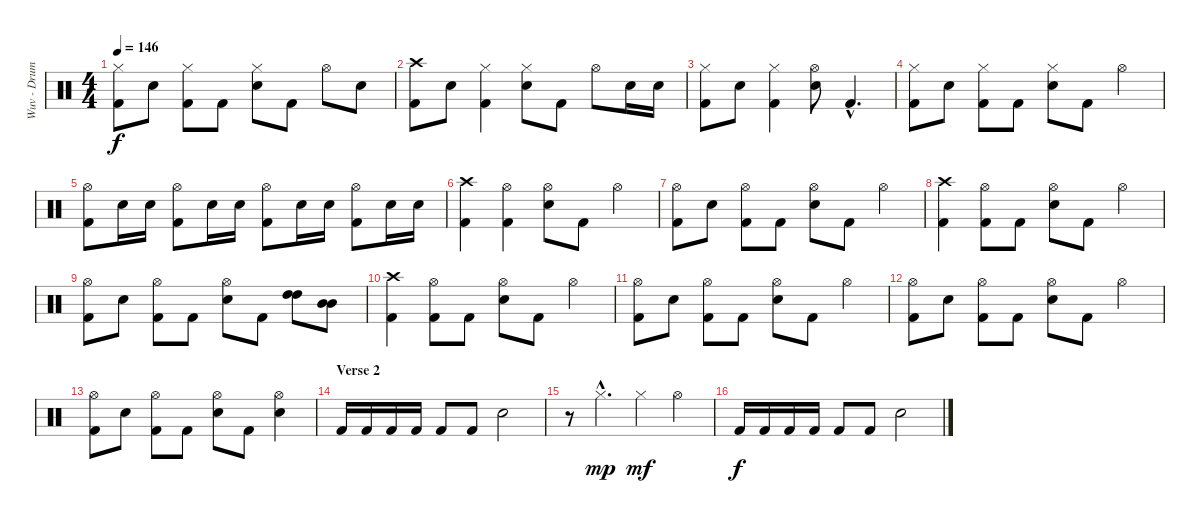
\track ("Wuv - Drums" "Wuv - Drum") {instrument percussion}
\staff {score}
\articulation defaults
\ts (4 4)
\tempo 146
\clef neutral
\ks c
("Hi-Hat (closed)" "Kick (hit) 2").8{dy f} "Electric Snare (hit)".8 ("Hi-Hat (closed)" "Kick (hit) 2").8 "Kick (hit) 2".8 ("Hi-Hat (closed)" "Electric Snare (hit)").8 "Kick (hit) 2".8 "Hi-Hat (open)".8 "Electric Snare (hit)".8 |
("Crash high (hit)" "Kick (hit) 2").8 "Electric Snare (hit)".8 ("Hi-Hat (closed)" "Kick (hit) 2").4 ("Hi-Hat (closed)" "Electric Snare (hit)").8 "Kick (hit) 2".8 "Hi-Hat (open)".8 "Electric Snare (hit)".16 "Electric Snare (hit)".16 |
("Hi-Hat (closed)" "Kick (hit) 2").8 "Electric Snare (hit)".8 ("Hi-Hat (closed)" "Kick (hit) 2").4 ("Hi-Hat (open)" "Electric Snare (hit)").8 "Kick (hit) 2"{hac}.4{d} |
("Hi-Hat (closed)" "Kick (hit) 2").8 "Electric Snare (hit)".8 ("Hi-Hat (closed)" "Kick (hit) 2").8 "Kick (hit) 2".8 ("Hi-Hat (closed)" "Electric Snare (hit)").8 "Kick (hit) 2".8 "Hi-Hat (open)".4 |
("Hi-Hat (open)" "Kick (hit) 2").8 "Electric Snare (hit)".16 "Electric Snare (hit)".16 ("Hi-Hat (open)" "Kick (hit) 2").8 "Electric Snare (hit)".16 "Electric Snare (hit)".16 ("Hi-Hat (open)" "Kick (hit) 2").8 "Electric Snare (hit)".16 "Electric Snare (hit)".16 ("Hi-Hat (open)" "Kick (hit) 2").8 "Electric Snare (hit)".16 "Electric Snare (hit)".16 |
("Crash high (hit)" "Kick (hit) 2").4 ("Hi-Hat (open)" "Kick (hit) 2").4 ("Hi-Hat (open)" "Electric Snare (hit)").8 "Kick (hit) 2".8 "Hi-Hat (open)".4 |
("Hi-Hat (open)" "Kick (hit) 2").8 "Electric Snare (hit)".8 ("Hi-Hat (open)" "Kick (hit) 2").8 "Kick (hit) 2".8 ("Hi-Hat (open)" "Electric Snare (hit)").8 "Kick (hit) 2".8 "Hi-Hat (open)".4 |
("Crash high (hit)" "Kick (hit) 2").4 ("Hi-Hat (open)" "Kick (hit) 2").8 "Kick (hit) 2".8 ("Hi-Hat (open)" "Electric Snare (hit)").8 "Kick (hit) 2".8 "Hi-Hat (open)".4 |
("Hi-Hat (open)" "Kick (hit) 2").8 "Electric Snare (hit)".8 ("Hi-Hat (open)" "Kick (hit) 2").8 "Kick (hit) 2".8 ("Hi-Hat (open)" "Electric Snare (hit)").8 "Kick (hit) 2".8 ("High Tom (hit)" "High Tom (hit)").8 ("Mid Tom (hit)" "Mid Tom (hit)").8 |
("Crash high (hit)" "Kick (hit) 2").4 ("Hi-Hat (open)" "Kick (hit) 2").8 "Kick (hit) 2".8 ("Hi-Hat (open)" "Electric Snare (hit)").8 "Kick (hit) 2".8 "Hi-Hat (open)".4 |
("Hi-Hat (open)" "Kick (hit) 2").8 "Electric Snare (hit)".8 ("Hi-Hat (open)" "Kick (hit) 2").8 "Kick (hit) 2".8 ("Hi-Hat (open)" "Electric Snare (hit)").8 "Kick (hit) 2".8 "Hi-Hat (open)".4 |
("Hi-Hat (open)" "Kick (hit) 2").8 "Electric Snare (hit)".8 ("Hi-Hat (open)" "Kick (hit) 2").8 "Kick (hit) 2".8 ("Hi-Hat (open)" "Electric Snare (hit)").8 "Kick (hit) 2".8 "Hi-Hat (open)".4 |
("Hi-Hat (open)" "Kick (hit) 2").8 "Electric Snare (hit)".8 ("Hi-Hat (open)" "Kick (hit) 2").8 "Kick (hit) 2".8 ("Hi-Hat (open)" "Electric Snare (hit)").8 "Kick (hit) 2".8 ("Hi-Hat (open)" "Electric Snare (hit)").4 |
\section ("" "Verse 2")
"Kick (hit) 2".16 "Kick (hit) 2".16 "Kick (hit) 2".16 "Kick (hit) 2".16 "Kick (hit) 2".8 "Kick (hit) 2".8 "Electric Snare (hit)".2 |
r.8 "Hi-Hat (closed)"{hac}.4{d dy mp} "Hi-Hat (closed)".4{dy mf} "Hi-Hat (open)".4 |
"Kick (hit) 2".16{dy f} "Kick (hit) 2".16 "Kick (hit) 2".16 "Kick (hit) 2".16 "Kick (hit) 2".8 "Kick (hit) 2".8 "Electric Snare (hit)".2
